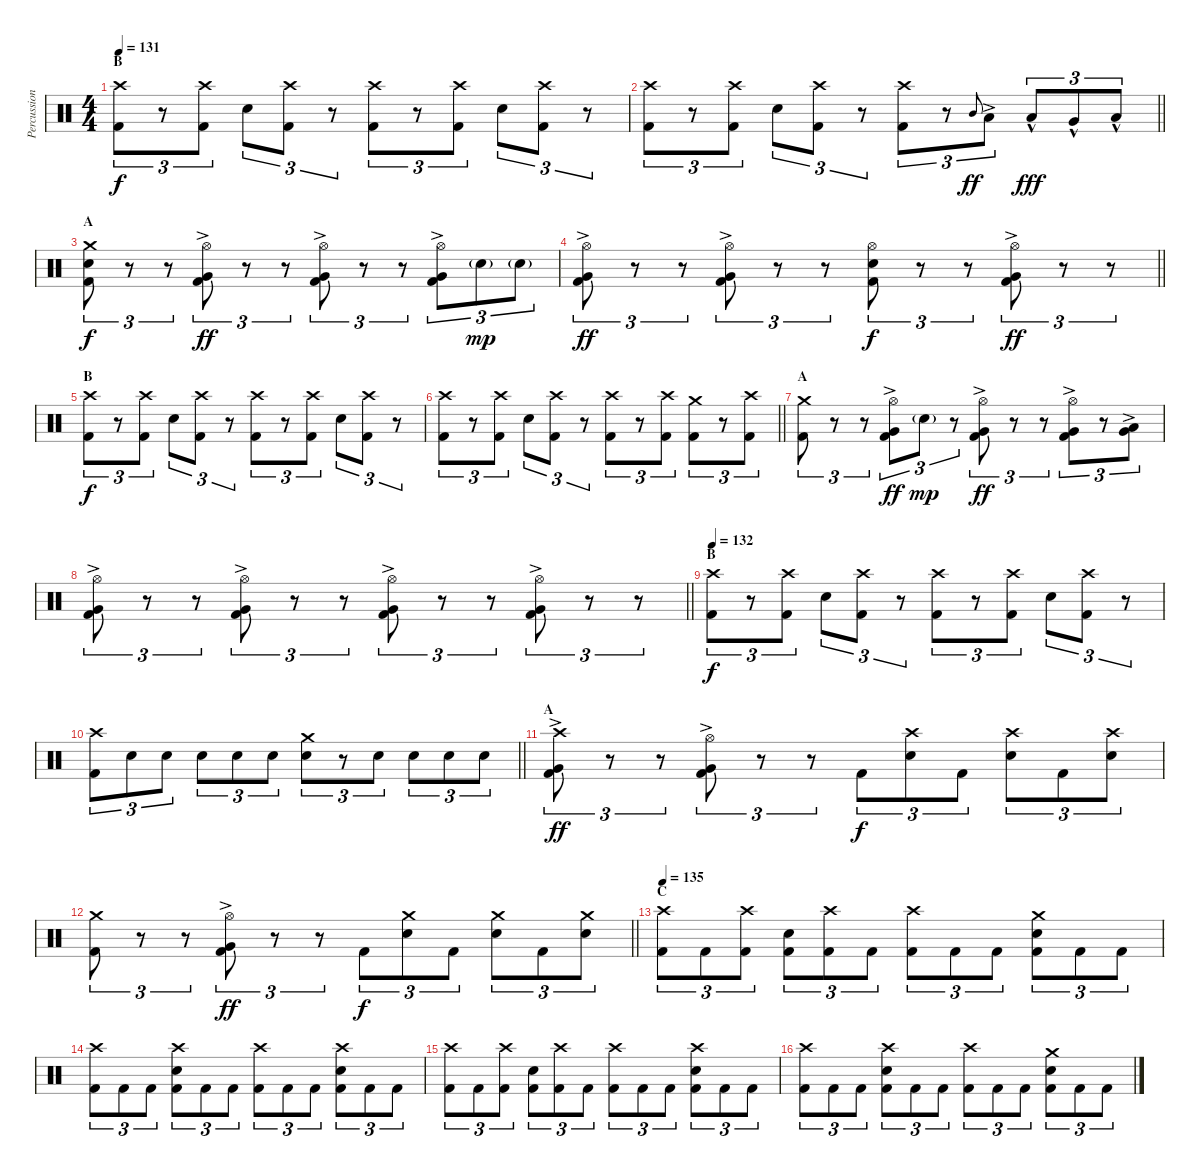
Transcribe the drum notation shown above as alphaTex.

\track ("Percussion" "Percussion") {instrument percussion}
\staff {score}
\articulation defaults
\ts (4 4)
\section ("" "B")
\tempo 131
\clef neutral
\ks c
("Crash high (hit)" "Kick (hit) 2").8{tu (3 2) dy f} r.8{tu (3 2)} ("Crash high (hit)" "Kick (hit) 2").8{tu (3 2)} "Electric Snare (hit)".8{tu (3 2)} ("Crash high (hit)" "Kick (hit) 2").8{tu (3 2)} r.8{tu (3 2)} ("Crash high (hit)" "Kick (hit) 2").8{tu (3 2)} r.8{tu (3 2)} ("Crash high (hit)" "Kick (hit) 2").8{tu (3 2)} "Electric Snare (hit)".8{tu (3 2)} ("Crash high (hit)" "Kick (hit) 2").8{tu (3 2)} r.8{tu (3 2)} |
\barLineRight lightlight
("Crash high (hit)" "Kick (hit) 2").8{tu (3 2)} r.8{tu (3 2)} ("Crash high (hit)" "Kick (hit) 2").8{tu (3 2)} "Electric Snare (hit)".8{tu (3 2)} ("Crash high (hit)" "Kick (hit) 2").8{tu (3 2)} r.8{tu (3 2)} ("Crash high (hit)" "Kick (hit) 2").8{tu (3 2)} r.8{tu (3 2)} "Mid Tom (hit)".8{gr onbeat dy ff} "Low Tom (hit)"{ac}.8{tu (3 2)} "Low Tom (hit)"{hac}.8{tu (3 2) dy fff} "Very Low Tom (hit)"{hac}.8{tu (3 2)} "Low Floor Tom (hit)"{hac}.8{tu (3 2)} |
\section ("" "A")
("Crash medium (hit)" "Electric Snare (hit)" "Kick (hit) 2").8{tu (3 2) dy f} r.8{tu (3 2)} r.8{tu (3 2)} ("Hi-Hat (open)" "Very Low Tom (hit)"{ac} "Kick (hit) 2").8{tu (3 2) dy ff} r.8{tu (3 2)} r.8{tu (3 2)} ("Hi-Hat (open)" "Very Low Tom (hit)"{ac} "Kick (hit) 2").8{tu (3 2)} r.8{tu (3 2)} r.8{tu (3 2)} ("Hi-Hat (open)" "Very Low Tom (hit)"{ac} "Kick (hit) 2").8{tu (3 2)} "Electric Snare (hit)"{g}.8{tu (3 2) dy mp} "Electric Snare (hit)"{g}.8{tu (3 2)} |
\barLineRight lightlight
("Hi-Hat (open)" "Very Low Tom (hit)"{ac} "Kick (hit) 2").8{tu (3 2) dy ff} r.8{tu (3 2)} r.8{tu (3 2)} ("Hi-Hat (open)" "Very Low Tom (hit)"{ac} "Kick (hit) 2").8{tu (3 2)} r.8{tu (3 2)} r.8{tu (3 2)} ("Hi-Hat (open)" "Electric Snare (hit)" "Kick (hit) 2").8{tu (3 2) dy f} r.8{tu (3 2)} r.8{tu (3 2)} ("Hi-Hat (open)" "Very Low Tom (hit)"{ac} "Kick (hit) 2").8{tu (3 2) dy ff} r.8{tu (3 2)} r.8{tu (3 2)} |
\section ("" "B")
("Crash high (hit)" "Kick (hit) 2").8{tu (3 2) dy f} r.8{tu (3 2)} ("Crash high (hit)" "Kick (hit) 2").8{tu (3 2)} "Electric Snare (hit)".8{tu (3 2)} ("Crash high (hit)" "Kick (hit) 2").8{tu (3 2)} r.8{tu (3 2)} ("Crash high (hit)" "Kick (hit) 2").8{tu (3 2)} r.8{tu (3 2)} ("Crash high (hit)" "Kick (hit) 2").8{tu (3 2)} "Electric Snare (hit)".8{tu (3 2)} ("Crash high (hit)" "Kick (hit) 2").8{tu (3 2)} r.8{tu (3 2)} |
\barLineRight lightlight
("Crash high (hit)" "Kick (hit) 2").8{tu (3 2)} r.8{tu (3 2)} ("Crash high (hit)" "Kick (hit) 2").8{tu (3 2)} "Electric Snare (hit)".8{tu (3 2)} ("Crash high (hit)" "Kick (hit) 2").8{tu (3 2)} r.8{tu (3 2)} ("Crash high (hit)" "Kick (hit) 2").8{tu (3 2)} r.8{tu (3 2)} ("Crash high (hit)" "Kick (hit) 2").8{tu (3 2)} ("Crash medium (hit)" "Kick (hit) 2").8{tu (3 2)} r.8{tu (3 2)} ("Crash high (hit)" "Kick (hit) 2").8{tu (3 2)} |
\section ("" "A")
("Crash medium (hit)" "Kick (hit) 2").8{tu (3 2)} r.8{tu (3 2)} r.8{tu (3 2)} ("Hi-Hat (open)" "Very Low Tom (hit)"{ac} "Kick (hit) 2").8{tu (3 2) dy ff} "Electric Snare (hit)"{g}.8{tu (3 2) dy mp} r.8{tu (3 2)} ("Hi-Hat (open)" "Very Low Tom (hit)"{ac} "Kick (hit) 2").8{tu (3 2) dy ff} r.8{tu (3 2)} r.8{tu (3 2)} ("Hi-Hat (open)" "Very Low Tom (hit)"{ac} "Kick (hit) 2").8{tu (3 2)} r.8{tu (3 2)} ("Low Tom (hit)"{ac} "Very Low Tom (hit)"{ac}).8{tu (3 2)} |
\barLineRight lightlight
("Hi-Hat (open)" "Very Low Tom (hit)"{ac} "Kick (hit) 2").8{tu (3 2)} r.8{tu (3 2)} r.8{tu (3 2)} ("Hi-Hat (open)" "Very Low Tom (hit)"{ac} "Kick (hit) 2").8{tu (3 2)} r.8{tu (3 2)} r.8{tu (3 2)} ("Hi-Hat (open)" "Very Low Tom (hit)"{ac} "Kick (hit) 2").8{tu (3 2)} r.8{tu (3 2)} r.8{tu (3 2)} ("Hi-Hat (open)" "Very Low Tom (hit)"{ac} "Kick (hit) 2").8{tu (3 2)} r.8{tu (3 2)} r.8{tu (3 2)} |
\section ("" "B")
\tempo 132
("Crash high (hit)" "Kick (hit) 2").8{tu (3 2) dy f} r.8{tu (3 2)} ("Crash high (hit)" "Kick (hit) 2").8{tu (3 2)} "Electric Snare (hit)".8{tu (3 2)} ("Crash high (hit)" "Kick (hit) 2").8{tu (3 2)} r.8{tu (3 2)} ("Crash high (hit)" "Kick (hit) 2").8{tu (3 2)} r.8{tu (3 2)} ("Crash high (hit)" "Kick (hit) 2").8{tu (3 2)} "Electric Snare (hit)".8{tu (3 2)} ("Crash high (hit)" "Kick (hit) 2").8{tu (3 2)} r.8{tu (3 2)} |
\barLineRight lightlight
("Crash high (hit)" "Kick (hit) 2").8{tu (3 2)} "Electric Snare (hit)".8{tu (3 2)} "Electric Snare (hit)".8{tu (3 2)} "Electric Snare (hit)".8{tu (3 2)} "Electric Snare (hit)".8{tu (3 2)} "Electric Snare (hit)".8{tu (3 2)} ("Crash medium (hit)" "Electric Snare (hit)").8{tu (3 2)} r.8{tu (3 2)} "Electric Snare (hit)".8{tu (3 2)} "Electric Snare (hit)".8{tu (3 2)} "Electric Snare (hit)".8{tu (3 2)} "Electric Snare (hit)".8{tu (3 2)} |
\section ("" "A")
("Crash high (hit)" "Very Low Tom (hit)"{ac} "Kick (hit) 2").8{tu (3 2) dy ff} r.8{tu (3 2)} r.8{tu (3 2)} ("Hi-Hat (open)" "Very Low Tom (hit)"{ac} "Kick (hit) 2").8{tu (3 2)} r.8{tu (3 2)} r.8{tu (3 2)} "Kick (hit) 2".8{tu (3 2) dy f} ("Crash high (hit)" "Electric Snare (hit)").8{tu (3 2)} "Kick (hit) 2".8{tu (3 2)} ("Crash high (hit)" "Electric Snare (hit)").8{tu (3 2)} "Kick (hit) 2".8{tu (3 2)} ("Crash high (hit)" "Electric Snare (hit)").8{tu (3 2)} |
\barLineRight lightlight
("Crash medium (hit)" "Kick (hit) 2").8{tu (3 2)} r.8{tu (3 2)} r.8{tu (3 2)} ("Hi-Hat (open)" "Very Low Tom (hit)"{ac} "Kick (hit) 2").8{tu (3 2) dy ff} r.8{tu (3 2)} r.8{tu (3 2)} "Kick (hit) 2".8{tu (3 2) dy f} ("Crash medium (hit)" "Electric Snare (hit)").8{tu (3 2)} "Kick (hit) 2".8{tu (3 2)} ("Crash medium (hit)" "Electric Snare (hit)").8{tu (3 2)} "Kick (hit) 2".8{tu (3 2)} ("Crash medium (hit)" "Electric Snare (hit)").8{tu (3 2)} |
\section ("" "C")
\tempo 135
("Crash high (hit)" "Kick (hit) 2").8{tu (3 2)} "Kick (hit) 2".8{tu (3 2)} ("Crash high (hit)" "Kick (hit) 2").8{tu (3 2)} ("Electric Snare (hit)" "Kick (hit) 2").8{tu (3 2)} ("Crash high (hit)" "Kick (hit) 2").8{tu (3 2)} "Kick (hit) 2".8{tu (3 2)} ("Crash high (hit)" "Kick (hit) 2").8{tu (3 2)} "Kick (hit) 2".8{tu (3 2)} "Kick (hit) 2".8{tu (3 2)} ("Crash medium (hit)" "Electric Snare (hit)" "Kick (hit) 2").8{tu (3 2)} "Kick (hit) 2".8{tu (3 2)} "Kick (hit) 2".8{tu (3 2)} |
("Crash high (hit)" "Kick (hit) 2").8{tu (3 2)} "Kick (hit) 2".8{tu (3 2)} "Kick (hit) 2".8{tu (3 2)} ("Crash high (hit)" "Electric Snare (hit)" "Kick (hit) 2").8{tu (3 2)} "Kick (hit) 2".8{tu (3 2)} "Kick (hit) 2".8{tu (3 2)} ("Crash high (hit)" "Kick (hit) 2").8{tu (3 2)} "Kick (hit) 2".8{tu (3 2)} "Kick (hit) 2".8{tu (3 2)} ("Crash high (hit)" "Electric Snare (hit)" "Kick (hit) 2").8{tu (3 2)} "Kick (hit) 2".8{tu (3 2)} "Kick (hit) 2".8{tu (3 2)} |
("Crash high (hit)" "Kick (hit) 2").8{tu (3 2)} "Kick (hit) 2".8{tu (3 2)} ("Crash high (hit)" "Kick (hit) 2").8{tu (3 2)} ("Electric Snare (hit)" "Kick (hit) 2").8{tu (3 2)} ("Crash high (hit)" "Kick (hit) 2").8{tu (3 2)} "Kick (hit) 2".8{tu (3 2)} ("Crash high (hit)" "Kick (hit) 2").8{tu (3 2)} "Kick (hit) 2".8{tu (3 2)} "Kick (hit) 2".8{tu (3 2)} ("Crash high (hit)" "Electric Snare (hit)" "Kick (hit) 2").8{tu (3 2)} "Kick (hit) 2".8{tu (3 2)} "Kick (hit) 2".8{tu (3 2)} |
("Crash high (hit)" "Kick (hit) 2").8{tu (3 2)} "Kick (hit) 2".8{tu (3 2)} "Kick (hit) 2".8{tu (3 2)} ("Crash high (hit)" "Electric Snare (hit)" "Kick (hit) 2").8{tu (3 2)} "Kick (hit) 2".8{tu (3 2)} "Kick (hit) 2".8{tu (3 2)} ("Crash high (hit)" "Kick (hit) 2").8{tu (3 2)} "Kick (hit) 2".8{tu (3 2)} "Kick (hit) 2".8{tu (3 2)} ("Crash medium (hit)" "Electric Snare (hit)" "Kick (hit) 2").8{tu (3 2)} "Kick (hit) 2".8{tu (3 2)} "Kick (hit) 2".8{tu (3 2)}
